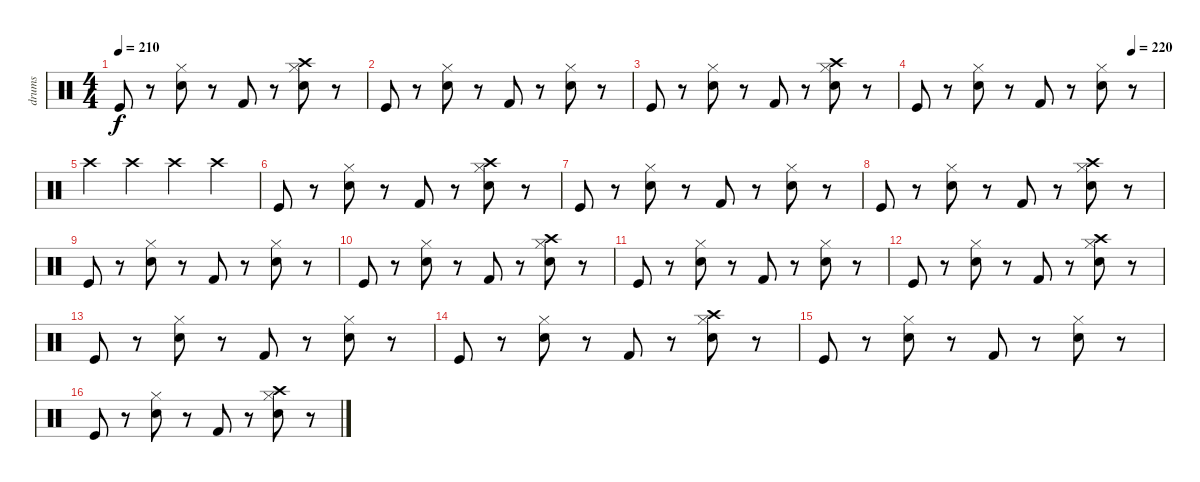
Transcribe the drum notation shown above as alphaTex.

\track ("drums" "drums") {instrument percussion}
\staff {score}
\articulation defaults
\ts (4 4)
\tempo 210
\clef neutral
\ks c "Kick (hit)".8{dy f}
r.8 ("Electric Snare (hit)" "Hi-Hat (closed)").8 r.8 "Kick (hit) 2".8 r.8 ("Electric Snare (hit)" "Hi-Hat (closed)" "Crash high (hit)").8 r.8 |
"Kick (hit)".8 r.8 ("Electric Snare (hit)" "Hi-Hat (closed)").8 r.8 "Kick (hit) 2".8 r.8 ("Electric Snare (hit)" "Hi-Hat (closed)").8 r.8 |
"Kick (hit)".8 r.8 ("Electric Snare (hit)" "Hi-Hat (closed)").8 r.8 "Kick (hit) 2".8 r.8 ("Electric Snare (hit)" "Hi-Hat (closed)" "Crash high (hit)").8 r.8 |
\tempo (220 0.875)
"Kick (hit)".8 r.8 ("Electric Snare (hit)" "Hi-Hat (closed)").8 r.8 "Kick (hit) 2".8 r.8 ("Electric Snare (hit)" "Hi-Hat (closed)").8 r.8 |
"Crash high (hit)".4 "Crash high (hit)".4 "Crash high (hit)".4 "Crash high (hit)".4 |
"Kick (hit)".8 r.8 ("Electric Snare (hit)" "Hi-Hat (closed)").8 r.8 "Kick (hit) 2".8 r.8 ("Electric Snare (hit)" "Hi-Hat (closed)" "Crash high (hit)").8 r.8 |
"Kick (hit)".8 r.8 ("Electric Snare (hit)" "Hi-Hat (closed)").8 r.8 "Kick (hit) 2".8 r.8 ("Electric Snare (hit)" "Hi-Hat (closed)").8 r.8 |
"Kick (hit)".8 r.8 ("Electric Snare (hit)" "Hi-Hat (closed)").8 r.8 "Kick (hit) 2".8 r.8 ("Electric Snare (hit)" "Hi-Hat (closed)" "Crash high (hit)").8 r.8 |
"Kick (hit)".8 r.8 ("Electric Snare (hit)" "Hi-Hat (closed)").8 r.8 "Kick (hit) 2".8 r.8 ("Electric Snare (hit)" "Hi-Hat (closed)").8 r.8 |
"Kick (hit)".8 r.8 ("Electric Snare (hit)" "Hi-Hat (closed)").8 r.8 "Kick (hit) 2".8 r.8 ("Electric Snare (hit)" "Hi-Hat (closed)" "Crash high (hit)").8 r.8 |
"Kick (hit)".8 r.8 ("Electric Snare (hit)" "Hi-Hat (closed)").8 r.8 "Kick (hit) 2".8 r.8 ("Electric Snare (hit)" "Hi-Hat (closed)").8 r.8 |
"Kick (hit)".8 r.8 ("Electric Snare (hit)" "Hi-Hat (closed)").8 r.8 "Kick (hit) 2".8 r.8 ("Electric Snare (hit)" "Hi-Hat (closed)" "Crash high (hit)").8 r.8 |
"Kick (hit)".8 r.8 ("Electric Snare (hit)" "Hi-Hat (closed)").8 r.8 "Kick (hit) 2".8 r.8 ("Electric Snare (hit)" "Hi-Hat (closed)").8 r.8 |
"Kick (hit)".8 r.8 ("Electric Snare (hit)" "Hi-Hat (closed)").8 r.8 "Kick (hit) 2".8 r.8 ("Electric Snare (hit)" "Hi-Hat (closed)" "Crash high (hit)").8 r.8 |
"Kick (hit)".8 r.8 ("Electric Snare (hit)" "Hi-Hat (closed)").8 r.8 "Kick (hit) 2".8 r.8 ("Electric Snare (hit)" "Hi-Hat (closed)").8 r.8 |
"Kick (hit)".8 r.8 ("Electric Snare (hit)" "Hi-Hat (closed)").8 r.8 "Kick (hit) 2".8 r.8 ("Electric Snare (hit)" "Hi-Hat (closed)" "Crash high (hit)").8 r.8
